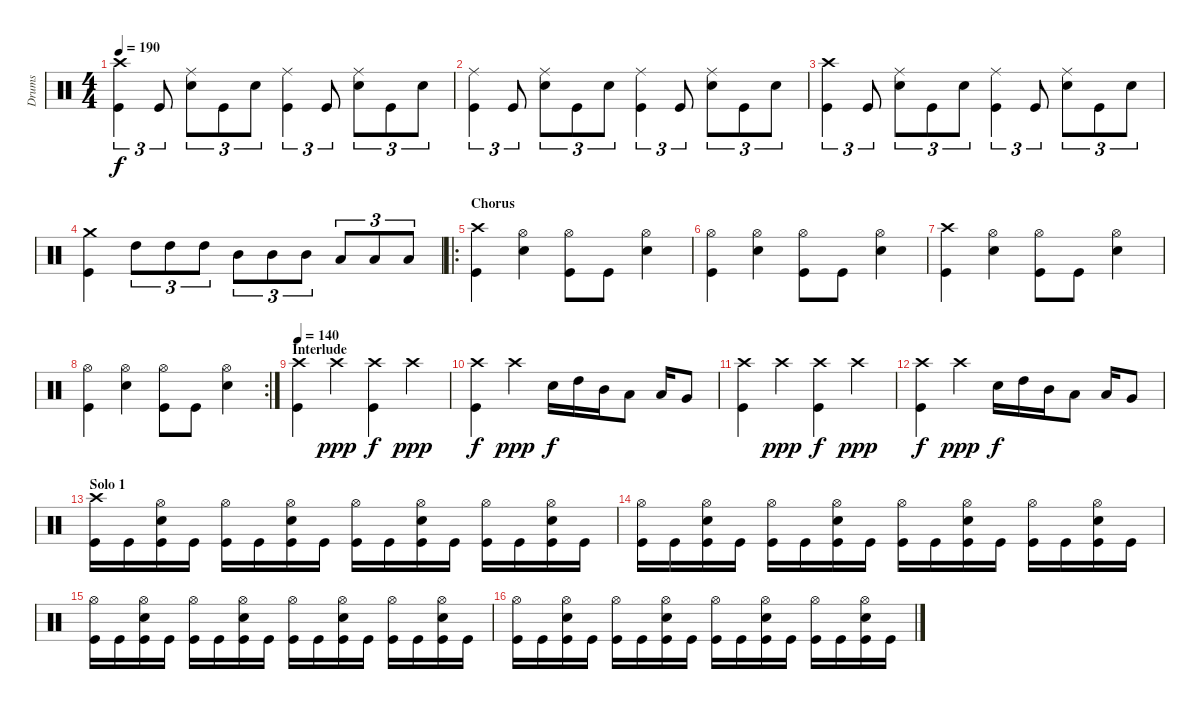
\track ("Drums" "Drums") {instrument percussion}
\staff {score}
\articulation defaults
\ts (4 4)
\tempo 190
\clef neutral
\ks c
("Crash high (hit)" "Kick (hit)").4{tu (3 2) dy f} "Kick (hit)".8{tu (3 2)} ("Ride (middle)" "Snare (hit) 2").8{tu (3 2)} "Kick (hit)".8{tu (3 2)} "Snare (hit) 2".8{tu (3 2)} ("Ride (middle)" "Kick (hit)").4{tu (3 2)} "Kick (hit)".8{tu (3 2)} ("Ride (middle)" "Snare (hit) 2").8{tu (3 2)} "Kick (hit)".8{tu (3 2)} "Snare (hit) 2".8{tu (3 2)} |
("Ride (middle)" "Kick (hit)").4{tu (3 2)} "Kick (hit)".8{tu (3 2)} ("Ride (middle)" "Snare (hit) 2").8{tu (3 2)} "Kick (hit)".8{tu (3 2)} "Snare (hit) 2".8{tu (3 2)} ("Ride (middle)" "Kick (hit)").4{tu (3 2)} "Kick (hit)".8{tu (3 2)} ("Ride (middle)" "Snare (hit) 2").8{tu (3 2)} "Kick (hit)".8{tu (3 2)} "Snare (hit) 2".8{tu (3 2)} |
("Crash high (hit)" "Kick (hit)").4{tu (3 2)} "Kick (hit)".8{tu (3 2)} ("Ride (middle)" "Snare (hit) 2").8{tu (3 2)} "Kick (hit)".8{tu (3 2)} "Snare (hit) 2".8{tu (3 2)} ("Ride (middle)" "Kick (hit)").4{tu (3 2)} "Kick (hit)".8{tu (3 2)} ("Ride (middle)" "Snare (hit) 2").8{tu (3 2)} "Kick (hit)".8{tu (3 2)} "Snare (hit) 2".8{tu (3 2)} |
("Crash medium (hit)" "Kick (hit)").4 "High Tom (hit)".8{tu (3 2)} "High Tom (hit)".8{tu (3 2)} "High Tom (hit)".8{tu (3 2)} "Mid Tom (hit)".8{tu (3 2)} "Mid Tom (hit)".8{tu (3 2)} "Mid Tom (hit)".8{tu (3 2)} "Low Tom (hit)".8{tu (3 2)} "Low Tom (hit)".8{tu (3 2)} "Low Tom (hit)".8{tu (3 2)} |
\ro
\section ("" "Chorus")
("Crash high (hit)" "Kick (hit)").4 ("Hi-Hat (open)" "Snare (hit) 2").4 ("Hi-Hat (open)" "Kick (hit)").8 "Kick (hit)".8 ("Hi-Hat (open)" "Snare (hit) 2").4 |
("Hi-Hat (open)" "Kick (hit)").4 ("Hi-Hat (open)" "Snare (hit) 2").4 ("Hi-Hat (open)" "Kick (hit)").8 "Kick (hit)".8 ("Hi-Hat (open)" "Snare (hit) 2").4 |
("Crash high (hit)" "Kick (hit)").4 ("Hi-Hat (open)" "Snare (hit) 2").4 ("Hi-Hat (open)" "Kick (hit)").8 "Kick (hit)".8 ("Hi-Hat (open)" "Snare (hit) 2").4 |
\rc 2
("Hi-Hat (open)" "Kick (hit)").4 ("Hi-Hat (open)" "Snare (hit) 2").4 ("Hi-Hat (open)" "Kick (hit)").8 "Kick (hit)".8 ("Hi-Hat (open)" "Snare (hit) 2").4 |
\section ("" "Interlude")
\tempo 140
("Crash high (hit)" "Kick (hit)").4 "Crash high (hit)".4{dy ppp} ("Crash high (hit)" "Kick (hit)").4{dy f} "Crash high (hit)".4{dy ppp} |
("Crash high (hit)" "Kick (hit)").4{dy f} "Crash high (hit)".4{dy ppp} "Snare (hit) 2".16{dy f} "High Tom (hit)".16 "Mid Tom (hit)".16 "Low Tom (hit)".8 "Low Tom (hit)".16 "Very Low Tom (hit)".8 |
("Crash high (hit)" "Kick (hit)").4 "Crash high (hit)".4{dy ppp} ("Crash high (hit)" "Kick (hit)").4{dy f} "Crash high (hit)".4{dy ppp} |
("Crash high (hit)" "Kick (hit)").4{dy f} "Crash high (hit)".4{dy ppp} "Snare (hit) 2".16{dy f} "High Tom (hit)".16 "Mid Tom (hit)".16 "Low Tom (hit)".8 "Low Tom (hit)".16 "Very Low Tom (hit)".8 |
\section ("" "Solo 1")
("Crash high (hit)" "Kick (hit)").16 "Kick (hit)".16 ("Hi-Hat (open)" "Snare (hit) 2" "Kick (hit)").16 "Kick (hit)".16 ("Hi-Hat (open)" "Kick (hit)").16 "Kick (hit)".16 ("Hi-Hat (open)" "Snare (hit) 2" "Kick (hit)").16 "Kick (hit)".16 ("Hi-Hat (open)" "Kick (hit)").16 "Kick (hit)".16 ("Hi-Hat (open)" "Snare (hit) 2" "Kick (hit)").16 "Kick (hit)".16 ("Hi-Hat (open)" "Kick (hit)").16 "Kick (hit)".16 ("Hi-Hat (open)" "Snare (hit) 2" "Kick (hit)").16 "Kick (hit)".16 |
("Hi-Hat (open)" "Kick (hit)").16 "Kick (hit)".16 ("Hi-Hat (open)" "Snare (hit) 2" "Kick (hit)").16 "Kick (hit)".16 ("Hi-Hat (open)" "Kick (hit)").16 "Kick (hit)".16 ("Hi-Hat (open)" "Snare (hit) 2" "Kick (hit)").16 "Kick (hit)".16 ("Hi-Hat (open)" "Kick (hit)").16 "Kick (hit)".16 ("Hi-Hat (open)" "Snare (hit) 2" "Kick (hit)").16 "Kick (hit)".16 ("Hi-Hat (open)" "Kick (hit)").16 "Kick (hit)".16 ("Hi-Hat (open)" "Snare (hit) 2" "Kick (hit)").16 "Kick (hit)".16 |
("Hi-Hat (open)" "Kick (hit)").16 "Kick (hit)".16 ("Hi-Hat (open)" "Snare (hit) 2" "Kick (hit)").16 "Kick (hit)".16 ("Hi-Hat (open)" "Kick (hit)").16 "Kick (hit)".16 ("Hi-Hat (open)" "Snare (hit) 2" "Kick (hit)").16 "Kick (hit)".16 ("Hi-Hat (open)" "Kick (hit)").16 "Kick (hit)".16 ("Hi-Hat (open)" "Snare (hit) 2" "Kick (hit)").16 "Kick (hit)".16 ("Hi-Hat (open)" "Kick (hit)").16 "Kick (hit)".16 ("Hi-Hat (open)" "Snare (hit) 2" "Kick (hit)").16 "Kick (hit)".16 |
("Hi-Hat (open)" "Kick (hit)").16 "Kick (hit)".16 ("Hi-Hat (open)" "Snare (hit) 2" "Kick (hit)").16 "Kick (hit)".16 ("Hi-Hat (open)" "Kick (hit)").16 "Kick (hit)".16 ("Hi-Hat (open)" "Snare (hit) 2" "Kick (hit)").16 "Kick (hit)".16 ("Hi-Hat (open)" "Kick (hit)").16 "Kick (hit)".16 ("Hi-Hat (open)" "Snare (hit) 2" "Kick (hit)").16 "Kick (hit)".16 ("Hi-Hat (open)" "Kick (hit)").16 "Kick (hit)".16 ("Hi-Hat (open)" "Snare (hit) 2" "Kick (hit)").16 "Kick (hit)".16
